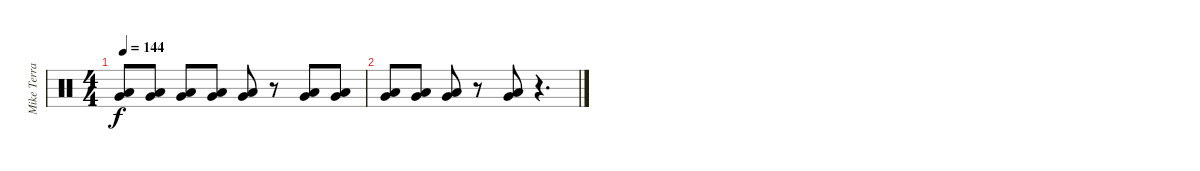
\track ("Mike Terrana" "Mike Terra") {instrument percussion}
\staff {score}
\articulation defaults
\ts (4 4)
\tempo 144
\clef neutral
\ks c
("Low Floor Tom (hit)" "Very Low Tom (hit)").8{dy f} ("Low Floor Tom (hit)" "Very Low Tom (hit)").8 ("Low Floor Tom (hit)" "Very Low Tom (hit)").8 ("Low Floor Tom (hit)" "Very Low Tom (hit)").8 ("Low Floor Tom (hit)" "Very Low Tom (hit)").8 r.8 ("Low Floor Tom (hit)" "Very Low Tom (hit)").8 ("Low Floor Tom (hit)" "Very Low Tom (hit)").8 |
("Low Floor Tom (hit)" "Very Low Tom (hit)").8 ("Low Floor Tom (hit)" "Very Low Tom (hit)").8 ("Low Floor Tom (hit)" "Very Low Tom (hit)").8 r.8 ("Low Floor Tom (hit)" "Very Low Tom (hit)").8 r.4{d}
